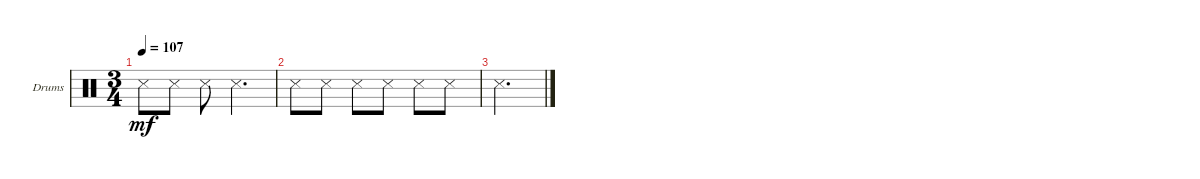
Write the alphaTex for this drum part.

\defaultSystemsLayout 4
\bracketExtendMode groupsimilarinstruments
\firstSystemTrackNameOrientation horizontal
\otherSystemsTrackNameOrientation horizontal
\track ("Drumkit" "Drums") {instrument percussion}
\staff {score}
\articulation defaults
\ts (3 4)
\tempo 107
\clef neutral
\ks c "Snare (side stick) 3".8{dy mf} "Snare (side stick) 3".8 "Snare (side stick) 3".8 "Snare (side stick) 3".4{d}
|
"Snare (side stick) 3".8 "Snare (side stick) 3".8 "Snare (side stick) 3".8 "Snare (side stick) 3".8 "Snare (side stick) 3".8 "Snare (side stick) 3".8 |
"Snare (side stick) 3".2{d}
